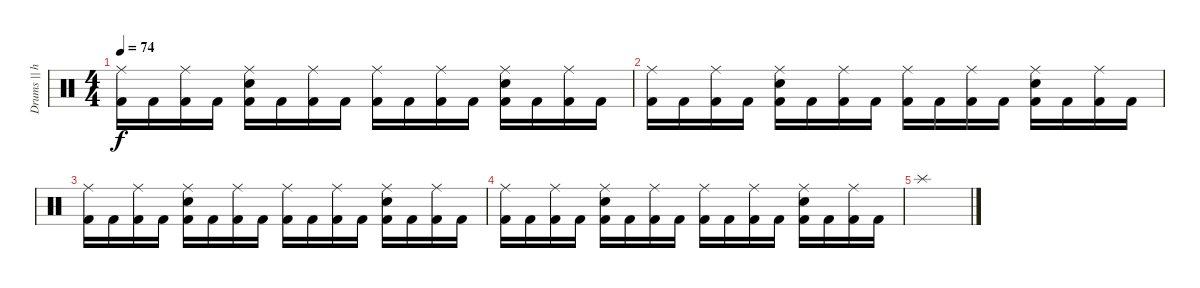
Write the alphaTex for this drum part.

\track ("Drums || have a look at my other tabs!" "Drums || h") {instrument percussion}
\staff {score}
\articulation defaults
\ts (4 4)
\tempo 74
\clef neutral
\ks c
("Ride (middle)" "Kick (hit) 2").16{dy f} "Kick (hit) 2".16 ("Ride (middle)" "Kick (hit) 2").16 "Kick (hit) 2".16 ("Ride (middle)" "Electric Snare (hit)" "Kick (hit) 2").16 "Kick (hit) 2".16 ("Ride (middle)" "Kick (hit) 2").16 "Kick (hit) 2".16 ("Ride (middle)" "Kick (hit) 2").16 "Kick (hit) 2".16 ("Ride (middle)" "Kick (hit) 2").16 "Kick (hit) 2".16 ("Ride (middle)" "Electric Snare (hit)" "Kick (hit) 2").16 "Kick (hit) 2".16 ("Ride (middle)" "Kick (hit) 2").16 "Kick (hit) 2".16 |
("Ride (middle)" "Kick (hit) 2").16 "Kick (hit) 2".16 ("Ride (middle)" "Kick (hit) 2").16 "Kick (hit) 2".16 ("Ride (middle)" "Electric Snare (hit)" "Kick (hit) 2").16 "Kick (hit) 2".16 ("Ride (middle)" "Kick (hit) 2").16 "Kick (hit) 2".16 ("Ride (middle)" "Kick (hit) 2").16 "Kick (hit) 2".16 ("Ride (middle)" "Kick (hit) 2").16 "Kick (hit) 2".16 ("Ride (middle)" "Electric Snare (hit)" "Kick (hit) 2").16 "Kick (hit) 2".16 ("Ride (middle)" "Kick (hit) 2").16 "Kick (hit) 2".16 |
("Ride (middle)" "Kick (hit) 2").16 "Kick (hit) 2".16 ("Ride (middle)" "Kick (hit) 2").16 "Kick (hit) 2".16 ("Ride (middle)" "Electric Snare (hit)" "Kick (hit) 2").16 "Kick (hit) 2".16 ("Ride (middle)" "Kick (hit) 2").16 "Kick (hit) 2".16 ("Ride (middle)" "Kick (hit) 2").16 "Kick (hit) 2".16 ("Ride (middle)" "Kick (hit) 2").16 "Kick (hit) 2".16 ("Ride (middle)" "Electric Snare (hit)" "Kick (hit) 2").16 "Kick (hit) 2".16 ("Ride (middle)" "Kick (hit) 2").16 "Kick (hit) 2".16 |
("Ride (middle)" "Kick (hit) 2").16 "Kick (hit) 2".16 ("Ride (middle)" "Kick (hit) 2").16 "Kick (hit) 2".16 ("Ride (middle)" "Electric Snare (hit)" "Kick (hit) 2").16 "Kick (hit) 2".16 ("Ride (middle)" "Kick (hit) 2").16 "Kick (hit) 2".16 ("Ride (middle)" "Kick (hit) 2").16 "Kick (hit) 2".16 ("Ride (middle)" "Kick (hit) 2").16 "Kick (hit) 2".16 ("Ride (middle)" "Electric Snare (hit)" "Kick (hit) 2").16 "Kick (hit) 2".16 ("Ride (middle)" "Kick (hit) 2").16 "Kick (hit) 2".16 |
"Splash (hit)".1
